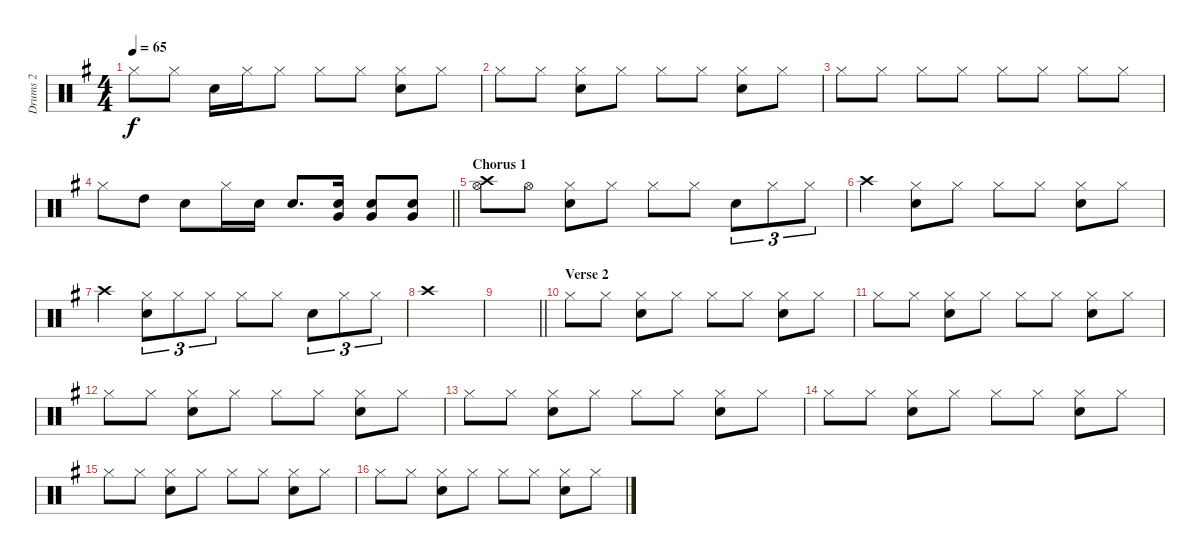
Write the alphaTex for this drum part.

\track ("Drums 2 " "Drums 2 ") {instrument percussion}
\staff {score}
\articulation defaults
\ts (4 4)
\tempo 65
\clef neutral
\ks g "Hi-Hat (closed)".8{dy f} "Hi-Hat (closed)".8 "Snare (hit) 2".16 "Hi-Hat (closed)".16 "Hi-Hat (closed)".8 "Hi-Hat (closed)".8 "Hi-Hat (closed)".8
("Snare (hit) 2" "Hi-Hat (closed)").8 "Hi-Hat (closed)".8 |
"Hi-Hat (closed)".8 "Hi-Hat (closed)".8 ("Hi-Hat (closed)" "Snare (hit) 2").8 "Hi-Hat (closed)".8 "Hi-Hat (closed)".8 "Hi-Hat (closed)".8 ("Hi-Hat (closed)" "Snare (hit) 2").8 "Hi-Hat (closed)".8 |
"Hi-Hat (closed)".8 "Hi-Hat (closed)".8 "Hi-Hat (closed)".8 "Hi-Hat (closed)".8 "Hi-Hat (closed)".8 "Hi-Hat (closed)".8 "Hi-Hat (closed)".8 "Hi-Hat (closed)".8 |
\barLineRight lightlight "Hi-Hat (closed)".8 "High Tom (hit)".8 "Snare (hit) 2".8 "Hi-Hat (closed)".16 "Snare (hit) 2".16 "Snare (hit) 2".8{d}
("Snare (hit) 2" "Very Low Tom (hit)").16 ("Very Low Tom (hit)" "Snare (hit) 2").8 ("Very Low Tom (hit)" "Snare (hit) 2").8 |
\section ("" "Chorus 1")
("Crash high (hit)" "Hi-Hat (open)").8 "Hi-Hat (open)".8 ("Hi-Hat (closed)" "Snare (hit) 2").8 "Hi-Hat (closed)".8 "Hi-Hat (closed)".8 "Hi-Hat (closed)".8 "Snare (hit) 2".8{tu (3 2)} "Hi-Hat (closed)".8{tu (3 2)} "Hi-Hat (closed)".8{tu (3 2)} |
"Crash high (hit)".4 ("Snare (hit) 2" "Hi-Hat (closed)").8 "Hi-Hat (closed)".8 "Hi-Hat (closed)".8 "Hi-Hat (closed)".8 ("Snare (hit) 2" "Hi-Hat (closed)").8 "Hi-Hat (closed)".8 |
"Crash high (hit)".4 ("Hi-Hat (closed)" "Snare (hit) 2").8{tu (3 2)} "Hi-Hat (closed)".8{tu (3 2)} "Hi-Hat (closed)".8{tu (3 2)} "Hi-Hat (closed)".8 "Hi-Hat (closed)".8 "Snare (hit) 2".8{tu (3 2)} "Hi-Hat (closed)".8{tu (3 2)} "Hi-Hat (closed)".8{tu (3 2)} |
"Crash high (hit)".1 |
\barLineRight lightlight
|
\section ("" "Verse 2")
"Hi-Hat (closed)".8 "Hi-Hat (closed)".8 ("Hi-Hat (closed)" "Snare (hit) 2").8 "Hi-Hat (closed)".8 "Hi-Hat (closed)".8 "Hi-Hat (closed)".8 ("Hi-Hat (closed)" "Snare (hit) 2").8 "Hi-Hat (closed)".8 |
"Hi-Hat (closed)".8 "Hi-Hat (closed)".8 ("Hi-Hat (closed)" "Snare (hit) 2").8 "Hi-Hat (closed)".8 "Hi-Hat (closed)".8 "Hi-Hat (closed)".8 ("Hi-Hat (closed)" "Snare (hit) 2").8 "Hi-Hat (closed)".8 |
"Hi-Hat (closed)".8 "Hi-Hat (closed)".8 ("Hi-Hat (closed)" "Snare (hit) 2").8 "Hi-Hat (closed)".8 "Hi-Hat (closed)".8 "Hi-Hat (closed)".8 ("Hi-Hat (closed)" "Snare (hit) 2").8 "Hi-Hat (closed)".8 |
"Hi-Hat (closed)".8 "Hi-Hat (closed)".8 ("Hi-Hat (closed)" "Snare (hit) 2").8 "Hi-Hat (closed)".8 "Hi-Hat (closed)".8 "Hi-Hat (closed)".8 ("Hi-Hat (closed)" "Snare (hit) 2").8 "Hi-Hat (closed)".8 |
"Hi-Hat (closed)".8 "Hi-Hat (closed)".8 ("Hi-Hat (closed)" "Snare (hit) 2").8 "Hi-Hat (closed)".8 "Hi-Hat (closed)".8 "Hi-Hat (closed)".8 ("Hi-Hat (closed)" "Snare (hit) 2").8 "Hi-Hat (closed)".8 |
"Hi-Hat (closed)".8 "Hi-Hat (closed)".8 ("Hi-Hat (closed)" "Snare (hit) 2").8 "Hi-Hat (closed)".8 "Hi-Hat (closed)".8 "Hi-Hat (closed)".8 ("Hi-Hat (closed)" "Snare (hit) 2").8 "Hi-Hat (closed)".8 |
"Hi-Hat (closed)".8 "Hi-Hat (closed)".8 ("Hi-Hat (closed)" "Snare (hit) 2").8 "Hi-Hat (closed)".8 "Hi-Hat (closed)".8 "Hi-Hat (closed)".8 ("Hi-Hat (closed)" "Snare (hit) 2").8 "Hi-Hat (closed)".8
